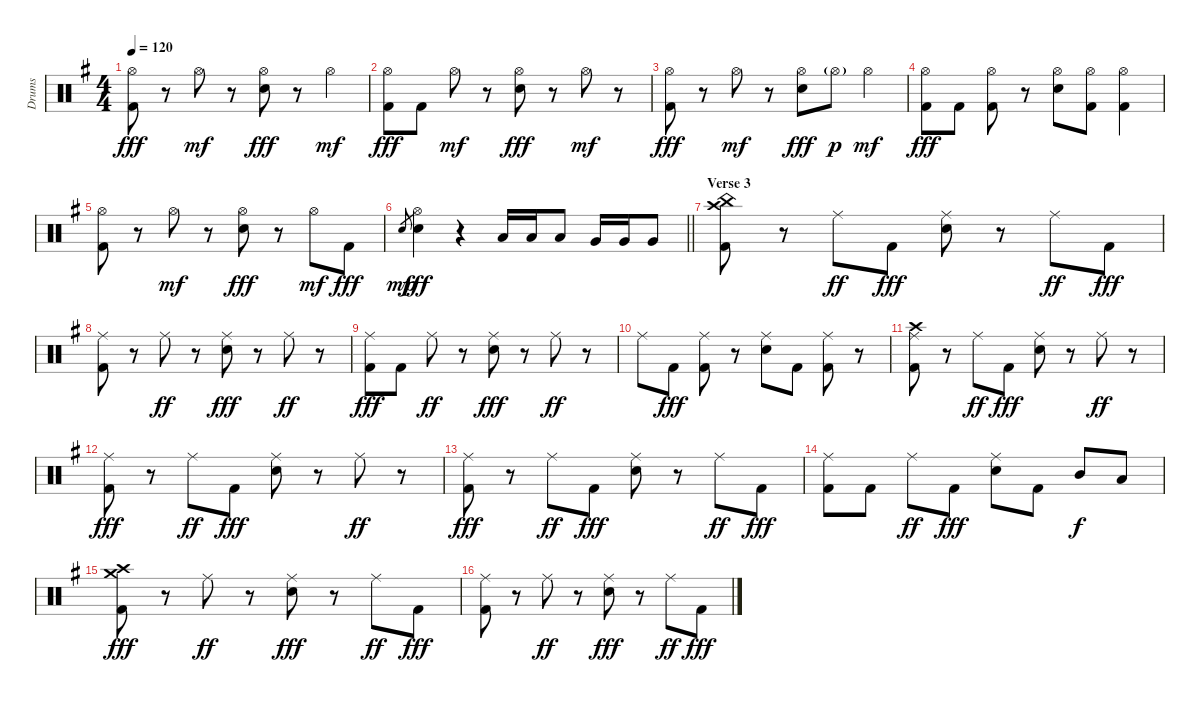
\track ("Drums" "Drums") {instrument percussion}
\staff {score}
\articulation defaults
\ts (4 4)
\tempo 120
\clef neutral
\ks g
("Hi-Hat (open)" "Kick (hit) 2").8{dy fff} r.8 "Hi-Hat (open)".8{dy mf} r.8 ("Hi-Hat (open)" "Electric Snare (hit)").8{dy fff} r.8 "Hi-Hat (open)".4{dy mf} |
("Hi-Hat (open)" "Kick (hit) 2").8{dy fff} "Kick (hit) 2".8 "Hi-Hat (open)".8{dy mf} r.8 ("Hi-Hat (open)" "Electric Snare (hit)").8{dy fff} r.8 "Hi-Hat (open)".8{dy mf} r.8 |
("Hi-Hat (open)" "Kick (hit) 2").8{dy fff} r.8 "Hi-Hat (open)".8{dy mf} r.8 ("Hi-Hat (open)" "Electric Snare (hit)").8{dy fff} "Hi-Hat (open)"{g}.8{dy p} "Hi-Hat (open)".4{dy mf} |
("Hi-Hat (open)" "Kick (hit) 2").8{dy fff} "Kick (hit) 2".8 ("Hi-Hat (open)" "Kick (hit) 2").8 r.8 ("Hi-Hat (open)" "Electric Snare (hit)").8 ("Hi-Hat (open)" "Kick (hit) 2").8 ("Hi-Hat (open)" "Kick (hit) 2").4 |
("Hi-Hat (open)" "Kick (hit) 2").8 r.8 "Hi-Hat (open)".8{dy mf} r.8 ("Hi-Hat (open)" "Electric Snare (hit)").8{dy fff} r.8 "Hi-Hat (open)".8{dy mf} "Kick (hit) 2".8{dy fff} |
\barLineRight lightlight "Electric Snare (hit)".8{gr dy mp}
("Hi-Hat (open)" "Electric Snare (hit)").4{dy fff} r.4 "Low Tom (hit)".16 "Low Tom (hit)".16 "Low Tom (hit)".8 "Very Low Tom (hit)".16 "Very Low Tom (hit)".16 "Very Low Tom (hit)".8 |
\section ("" "Verse 3")
("Crash high (hit)" "China (hit)" "Kick (hit) 2").8 r.8 "Ride (middle)".8{dy ff} "Kick (hit) 2".8{dy fff} ("Ride (middle)" "Electric Snare (hit)").8 r.8 "Ride (middle)".8{dy ff} "Kick (hit) 2".8{dy fff} |
("Ride (middle)" "Kick (hit) 2").8 r.8 "Ride (middle)".8{dy ff} r.8 ("Ride (middle)" "Electric Snare (hit)").8{dy fff} r.8 "Ride (middle)".8{dy ff} r.8 |
("Ride (middle)" "Kick (hit) 2").8{dy fff} "Kick (hit) 2".8 "Ride (middle)".8{dy ff} r.8 ("Ride (middle)" "Electric Snare (hit)").8{dy fff} r.8 "Ride (middle)".8{dy ff} r.8 |
"Ride (middle)".8 "Kick (hit) 2".8{dy fff} ("Ride (middle)" "Kick (hit) 2").8 r.8 ("Ride (middle)" "Electric Snare (hit)").8 "Kick (hit) 2".8 ("Ride (middle)" "Kick (hit) 2").8 r.8 |
("Ride (middle)" "Crash high (hit)" "Kick (hit) 2").8 r.8 "Ride (middle)".8{dy ff} "Kick (hit) 2".8{dy fff} ("Ride (middle)" "Electric Snare (hit)").8 r.8 "Ride (middle)".8{dy ff} r.8 |
("Ride (middle)" "Kick (hit) 2").8{dy fff} r.8 "Ride (middle)".8{dy ff} "Kick (hit) 2".8{dy fff} ("Ride (middle)" "Electric Snare (hit)").8 r.8 "Ride (middle)".8{dy ff} r.8 |
("Ride (middle)" "Kick (hit) 2").8{dy fff} r.8 "Ride (middle)".8{dy ff} "Kick (hit) 2".8{dy fff} ("Ride (middle)" "Electric Snare (hit)").8 r.8 "Ride (middle)".8{dy ff} "Kick (hit) 2".8{dy fff} |
("Ride (middle)" "Kick (hit) 2").8 "Kick (hit) 2".8 "Ride (middle)".8{dy ff} "Kick (hit) 2".8{dy fff} ("Ride (middle)" "Electric Snare (hit)").8 "Kick (hit) 2".8 "Mid Tom (hit)".8{dy f} "Low Tom (hit)".8 |
("Crash high (hit)" "Crash medium (hit)" "Kick (hit) 2").8{dy fff} r.8 "Ride (middle)".8{dy ff} r.8 ("Ride (middle)" "Electric Snare (hit)").8{dy fff} r.8 "Ride (middle)".8{dy ff} "Kick (hit) 2".8{dy fff} |
("Ride (middle)" "Kick (hit) 2").8 r.8 "Ride (middle)".8{dy ff} r.8 ("Ride (middle)" "Electric Snare (hit)").8{dy fff} r.8 "Ride (middle)".8{dy ff} "Kick (hit) 2".8{dy fff}
